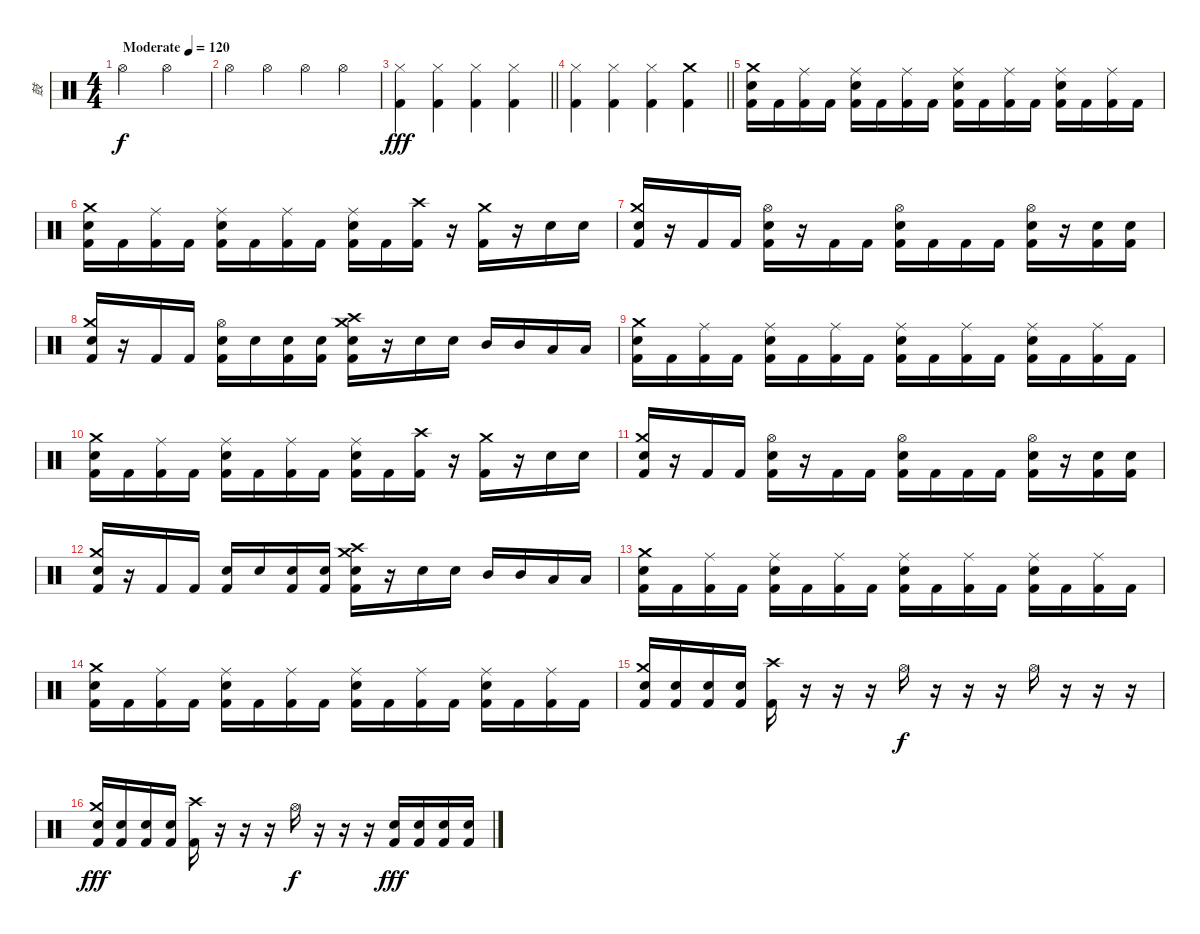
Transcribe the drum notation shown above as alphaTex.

\track ("鼓" "鼓") {instrument percussion}
\staff {score}
\articulation defaults
\ts (4 4)
\tempo (120 "Moderate")
\clef neutral
\ks c "Hi-Hat (open)".2{dy f} "Hi-Hat (open)".2
|
"Hi-Hat (open)".4 "Hi-Hat (open)".4 "Hi-Hat (open)".4 "Hi-Hat (open)".4 |
\barLineRight lightlight
("Hi-Hat (closed)" "Kick (hit) 2").4{dy fff} ("Hi-Hat (closed)" "Kick (hit) 2").4 ("Hi-Hat (closed)" "Kick (hit) 2").4 ("Hi-Hat (closed)" "Kick (hit) 2").4 |
\section ("" "")
\barLineRight lightlight
("Hi-Hat (closed)" "Kick (hit) 2").4 ("Hi-Hat (closed)" "Kick (hit) 2").4 ("Hi-Hat (closed)" "Kick (hit) 2").4 ("Crash medium (hit)" "Kick (hit) 2").4 |
\section ("" "")
("Crash medium (hit)" "Snare (hit) 2" "Kick (hit) 2").16 "Kick (hit) 2".16 ("Ride (middle)" "Kick (hit) 2").16 "Kick (hit) 2".16 ("Ride (middle)" "Snare (hit) 2" "Kick (hit) 2").16 "Kick (hit) 2".16 ("Ride (middle)" "Kick (hit) 2").16 "Kick (hit) 2".16 ("Ride (middle)" "Snare (hit) 2" "Kick (hit) 2").16 "Kick (hit) 2".16 ("Ride (middle)" "Kick (hit) 2").16 "Kick (hit) 2".16 ("Ride (middle)" "Snare (hit) 2" "Kick (hit) 2").16 "Kick (hit) 2".16 ("Ride (middle)" "Kick (hit) 2").16 "Kick (hit) 2".16 |
("Crash medium (hit)" "Snare (hit) 2" "Kick (hit) 2").16 "Kick (hit) 2".16 ("Ride (middle)" "Kick (hit) 2").16 "Kick (hit) 2".16 ("Ride (middle)" "Snare (hit) 2" "Kick (hit) 2").16 "Kick (hit) 2".16 ("Ride (middle)" "Kick (hit) 2").16 "Kick (hit) 2".16 ("Ride (middle)" "Snare (hit) 2" "Kick (hit) 2").16 "Kick (hit) 2".16 ("Crash high (hit)" "Kick (hit) 2").16 r.16 ("Crash medium (hit)" "Kick (hit) 2").16 r.16 "Snare (hit) 2".16 "Snare (hit) 2".16 |
("Crash medium (hit)" "Snare (hit) 2" "Kick (hit) 2").16 r.16 "Kick (hit) 2".16 "Kick (hit) 2".16 ("Hi-Hat (open)" "Snare (hit) 2" "Kick (hit) 2").16 r.16 "Kick (hit) 2".16 "Kick (hit) 2".16 ("Hi-Hat (open)" "Snare (hit) 2" "Kick (hit) 2").16 "Kick (hit) 2".16 "Kick (hit) 2".16 "Kick (hit) 2".16 ("Hi-Hat (open)" "Snare (hit) 2" "Kick (hit) 2").16 r.16 ("Snare (hit) 2" "Kick (hit) 2").16 ("Snare (hit) 2" "Kick (hit) 2").16 |
("Crash medium (hit)" "Snare (hit) 2" "Kick (hit) 2").16 r.16 "Kick (hit) 2".16 "Kick (hit) 2".16 ("Hi-Hat (open)" "Snare (hit) 2" "Kick (hit) 2").16 "Snare (hit) 2".16 ("Snare (hit) 2" "Kick (hit) 2").16 ("Snare (hit) 2" "Kick (hit) 2").16 ("Crash medium (hit)" "Crash high (hit)" "Snare (hit) 2" "Kick (hit) 2").16 r.16 "Snare (hit) 2".16 "Snare (hit) 2".16 "Mid Tom (hit)".16 "Mid Tom (hit)".16 "Low Tom (hit)".16 "Low Tom (hit)".16 |
("Crash medium (hit)" "Snare (hit) 2" "Kick (hit) 2").16 "Kick (hit) 2".16 ("Ride (middle)" "Kick (hit) 2").16 "Kick (hit) 2".16 ("Ride (middle)" "Snare (hit) 2" "Kick (hit) 2").16 "Kick (hit) 2".16 ("Ride (middle)" "Kick (hit) 2").16 "Kick (hit) 2".16 ("Ride (middle)" "Snare (hit) 2" "Kick (hit) 2").16 "Kick (hit) 2".16 ("Ride (middle)" "Kick (hit) 2").16 "Kick (hit) 2".16 ("Ride (middle)" "Snare (hit) 2" "Kick (hit) 2").16 "Kick (hit) 2".16 ("Ride (middle)" "Kick (hit) 2").16 "Kick (hit) 2".16 |
("Crash medium (hit)" "Snare (hit) 2" "Kick (hit) 2").16 "Kick (hit) 2".16 ("Ride (middle)" "Kick (hit) 2").16 "Kick (hit) 2".16 ("Ride (middle)" "Snare (hit) 2" "Kick (hit) 2").16 "Kick (hit) 2".16 ("Ride (middle)" "Kick (hit) 2").16 "Kick (hit) 2".16 ("Ride (middle)" "Snare (hit) 2" "Kick (hit) 2").16 "Kick (hit) 2".16 ("Crash high (hit)" "Kick (hit) 2").16 r.16 ("Crash medium (hit)" "Kick (hit) 2").16 r.16 "Snare (hit) 2".16 "Snare (hit) 2".16 |
("Crash medium (hit)" "Snare (hit) 2" "Kick (hit) 2").16 r.16 "Kick (hit) 2".16 "Kick (hit) 2".16 ("Hi-Hat (open)" "Snare (hit) 2" "Kick (hit) 2").16 r.16 "Kick (hit) 2".16 "Kick (hit) 2".16 ("Hi-Hat (open)" "Snare (hit) 2" "Kick (hit) 2").16 "Kick (hit) 2".16 "Kick (hit) 2".16 "Kick (hit) 2".16 ("Hi-Hat (open)" "Snare (hit) 2" "Kick (hit) 2").16 r.16 ("Snare (hit) 2" "Kick (hit) 2").16 ("Snare (hit) 2" "Kick (hit) 2").16 |
("Crash medium (hit)" "Snare (hit) 2" "Kick (hit) 2").16 r.16 "Kick (hit) 2".16 "Kick (hit) 2".16 ("Snare (hit) 2" "Kick (hit) 2").16 "Snare (hit) 2".16 ("Snare (hit) 2" "Kick (hit) 2").16 ("Snare (hit) 2" "Kick (hit) 2").16 ("Crash medium (hit)" "Crash high (hit)" "Snare (hit) 2" "Kick (hit) 2").16 r.16 "Snare (hit) 2".16 "Snare (hit) 2".16 "Mid Tom (hit)".16 "Mid Tom (hit)".16 "Low Tom (hit)".16 "Low Tom (hit)".16 |
("Crash medium (hit)" "Snare (hit) 2" "Kick (hit) 2").16 "Kick (hit) 2".16 ("Ride (middle)" "Kick (hit) 2").16 "Kick (hit) 2".16 ("Ride (middle)" "Snare (hit) 2" "Kick (hit) 2").16 "Kick (hit) 2".16 ("Ride (middle)" "Kick (hit) 2").16 "Kick (hit) 2".16 ("Ride (middle)" "Snare (hit) 2" "Kick (hit) 2").16 "Kick (hit) 2".16 ("Ride (middle)" "Kick (hit) 2").16 "Kick (hit) 2".16 ("Ride (middle)" "Snare (hit) 2" "Kick (hit) 2").16 "Kick (hit) 2".16 ("Ride (middle)" "Kick (hit) 2").16 "Kick (hit) 2".16 |
("Crash medium (hit)" "Snare (hit) 2" "Kick (hit) 2").16 "Kick (hit) 2".16 ("Ride (middle)" "Kick (hit) 2").16 "Kick (hit) 2".16 ("Ride (middle)" "Snare (hit) 2" "Kick (hit) 2").16 "Kick (hit) 2".16 ("Ride (middle)" "Kick (hit) 2").16 "Kick (hit) 2".16 ("Ride (middle)" "Snare (hit) 2" "Kick (hit) 2").16 "Kick (hit) 2".16 ("Ride (middle)" "Kick (hit) 2").16 "Kick (hit) 2".16 ("Ride (middle)" "Snare (hit) 2" "Kick (hit) 2").16 "Kick (hit) 2".16 ("Ride (middle)" "Kick (hit) 2").16 "Kick (hit) 2".16 |
("Crash medium (hit)" "Snare (hit) 2" "Kick (hit) 2").16 ("Snare (hit) 2" "Kick (hit) 2").16 ("Snare (hit) 2" "Kick (hit) 2").16 ("Snare (hit) 2" "Kick (hit) 2").16 ("Crash high (hit)" "Kick (hit) 2").16 r.16 r.16 r.16 "Hi-Hat (open)".16{dy f} r.16 r.16 r.16 "Hi-Hat (open)".16 r.16 r.16 r.16 |
("Crash medium (hit)" "Snare (hit) 2" "Kick (hit) 2").16{dy fff} ("Snare (hit) 2" "Kick (hit) 2").16 ("Snare (hit) 2" "Kick (hit) 2").16 ("Snare (hit) 2" "Kick (hit) 2").16 ("Crash high (hit)" "Kick (hit) 2").16 r.16 r.16 r.16 "Hi-Hat (open)".16{dy f} r.16 r.16 r.16 ("Snare (hit) 2" "Kick (hit) 2").16{dy fff} ("Snare (hit) 2" "Kick (hit) 2").16 ("Snare (hit) 2" "Kick (hit) 2").16 ("Snare (hit) 2" "Kick (hit) 2").16
